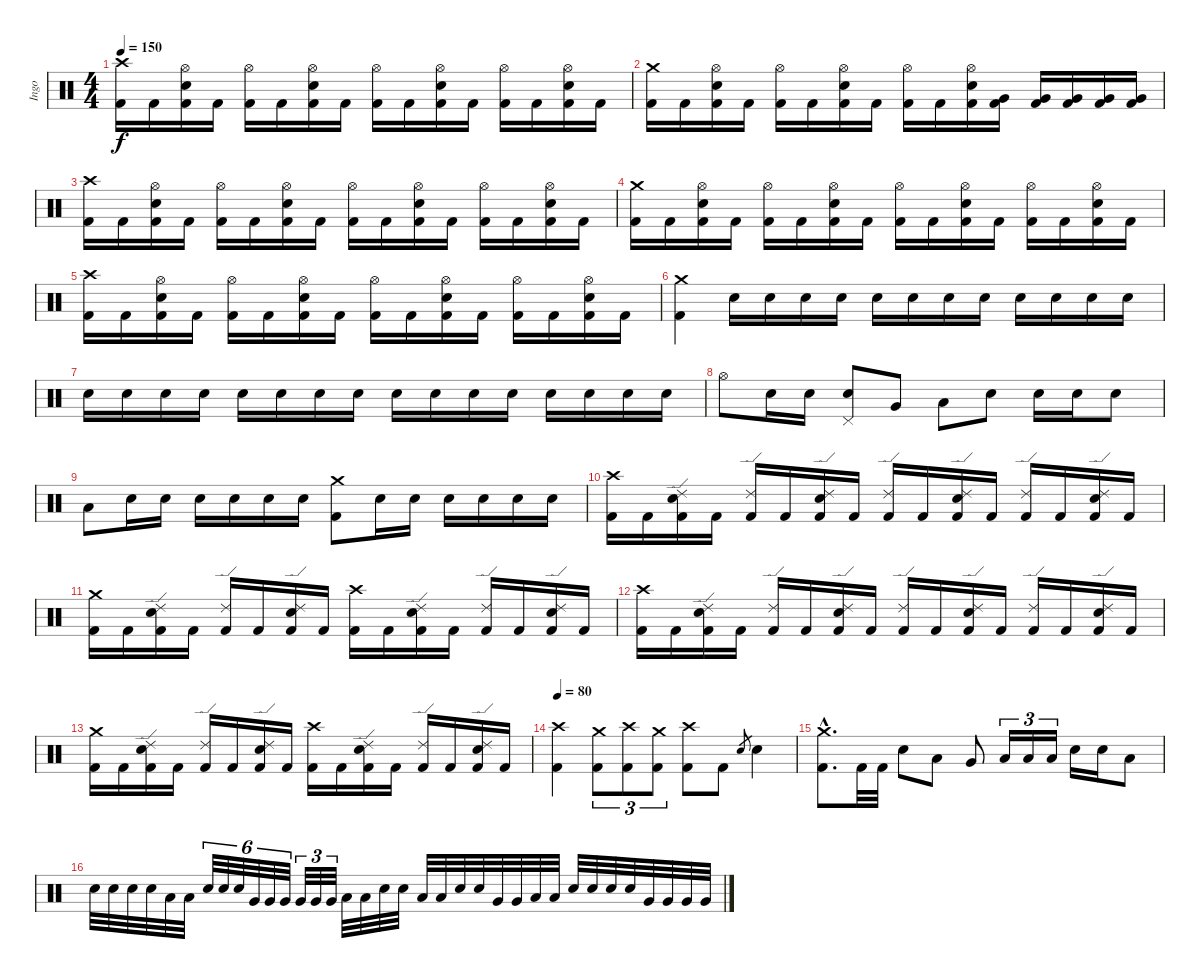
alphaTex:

\track ("Ingo" "Ingo") {instrument percussion}
\staff {score}
\articulation defaults
\ts (4 4)
\tempo 150
\clef neutral
\ks c
("Crash high (hit)" "Kick (hit) 2").16{dy f} "Kick (hit) 2".16 ("Hi-Hat (open)" "Electric Snare (hit)" "Kick (hit) 2").16 "Kick (hit) 2".16 ("Hi-Hat (open)" "Kick (hit) 2").16 "Kick (hit) 2".16 ("Hi-Hat (open)" "Electric Snare (hit)" "Kick (hit) 2").16 "Kick (hit) 2".16 ("Hi-Hat (open)" "Kick (hit) 2").16 "Kick (hit) 2".16 ("Hi-Hat (open)" "Electric Snare (hit)" "Kick (hit) 2").16 "Kick (hit) 2".16 ("Hi-Hat (open)" "Kick (hit) 2").16 "Kick (hit) 2".16 ("Hi-Hat (open)" "Electric Snare (hit)" "Kick (hit) 2").16 "Kick (hit) 2".16 |
("Crash medium (hit)" "Kick (hit) 2").16 "Kick (hit) 2".16 ("Hi-Hat (open)" "Electric Snare (hit)" "Kick (hit) 2").16 "Kick (hit) 2".16 ("Hi-Hat (open)" "Kick (hit) 2").16 "Kick (hit) 2".16 ("Hi-Hat (open)" "Electric Snare (hit)" "Kick (hit) 2").16 "Kick (hit) 2".16 ("Hi-Hat (open)" "Kick (hit) 2").16 "Kick (hit) 2".16 ("Hi-Hat (open)" "Electric Snare (hit)" "Kick (hit) 2").16 ("Very Low Tom (hit)" "Kick (hit) 2").16 ("Very Low Tom (hit)" "Kick (hit) 2").16 ("Very Low Tom (hit)" "Kick (hit) 2").16 ("Very Low Tom (hit)" "Kick (hit) 2").16 ("Very Low Tom (hit)" "Kick (hit) 2").16 |
("Crash high (hit)" "Kick (hit) 2").16 "Kick (hit) 2".16 ("Hi-Hat (open)" "Electric Snare (hit)" "Kick (hit) 2").16 "Kick (hit) 2".16 ("Hi-Hat (open)" "Kick (hit) 2").16 "Kick (hit) 2".16 ("Hi-Hat (open)" "Electric Snare (hit)" "Kick (hit) 2").16 "Kick (hit) 2".16 ("Hi-Hat (open)" "Kick (hit) 2").16 "Kick (hit) 2".16 ("Hi-Hat (open)" "Electric Snare (hit)" "Kick (hit) 2").16 "Kick (hit) 2".16 ("Hi-Hat (open)" "Kick (hit) 2").16 "Kick (hit) 2".16 ("Hi-Hat (open)" "Electric Snare (hit)" "Kick (hit) 2").16 "Kick (hit) 2".16 |
("Crash medium (hit)" "Kick (hit) 2").16 "Kick (hit) 2".16 ("Hi-Hat (open)" "Electric Snare (hit)" "Kick (hit) 2").16 "Kick (hit) 2".16 ("Hi-Hat (open)" "Kick (hit) 2").16 "Kick (hit) 2".16 ("Hi-Hat (open)" "Electric Snare (hit)" "Kick (hit) 2").16 "Kick (hit) 2".16 ("Hi-Hat (open)" "Kick (hit) 2").16 "Kick (hit) 2".16 ("Hi-Hat (open)" "Electric Snare (hit)" "Kick (hit) 2").16 "Kick (hit) 2".16 ("Hi-Hat (open)" "Kick (hit) 2").16 "Kick (hit) 2".16 ("Hi-Hat (open)" "Electric Snare (hit)" "Kick (hit) 2").16 "Kick (hit) 2".16 |
("Crash high (hit)" "Kick (hit) 2").16 "Kick (hit) 2".16 ("Hi-Hat (open)" "Electric Snare (hit)" "Kick (hit) 2").16 "Kick (hit) 2".16 ("Hi-Hat (open)" "Kick (hit) 2").16 "Kick (hit) 2".16 ("Hi-Hat (open)" "Electric Snare (hit)" "Kick (hit) 2").16 "Kick (hit) 2".16 ("Hi-Hat (open)" "Kick (hit) 2").16 "Kick (hit) 2".16 ("Hi-Hat (open)" "Electric Snare (hit)" "Kick (hit) 2").16 "Kick (hit) 2".16 ("Hi-Hat (open)" "Kick (hit) 2").16 "Kick (hit) 2".16 ("Hi-Hat (open)" "Electric Snare (hit)" "Kick (hit) 2").16 "Kick (hit) 2".16 |
("Crash medium (hit)" "Kick (hit) 2").4 "Electric Snare (hit)".16 "Electric Snare (hit)".16 "Electric Snare (hit)".16 "Electric Snare (hit)".16 "Electric Snare (hit)".16 "Electric Snare (hit)".16 "Electric Snare (hit)".16 "Electric Snare (hit)".16 "Electric Snare (hit)".16 "Electric Snare (hit)".16 "Electric Snare (hit)".16 "Electric Snare (hit)".16 |
"Electric Snare (hit)".16 "Electric Snare (hit)".16 "Electric Snare (hit)".16 "Electric Snare (hit)".16 "Electric Snare (hit)".16 "Electric Snare (hit)".16 "Electric Snare (hit)".16 "Electric Snare (hit)".16 "Electric Snare (hit)".16 "Electric Snare (hit)".16 "Electric Snare (hit)".16 "Electric Snare (hit)".16 "Electric Snare (hit)".16 "Electric Snare (hit)".16 "Electric Snare (hit)".16 "Electric Snare (hit)".16 |
"Hi-Hat (open)".8 "Electric Snare (hit)".16 "Electric Snare (hit)".16 ("Pedal Hi-Hat (hit)" "Electric Snare (hit)").8 "Very Low Tom (hit)".8 "Low Floor Tom (hit)".8 "Electric Snare (hit)".8 "Electric Snare (hit)".16 "Electric Snare (hit)".16 "Electric Snare (hit)".8 |
"Low Floor Tom (hit)".8 "Electric Snare (hit)".16 "Electric Snare (hit)".16 "Electric Snare (hit)".16 "Electric Snare (hit)".16 "Electric Snare (hit)".16 "Electric Snare (hit)".16 ("Crash medium (hit)" "Kick (hit) 2").8 "Electric Snare (hit)".16 "Electric Snare (hit)".16 "Electric Snare (hit)".16 "Electric Snare (hit)".16 "Electric Snare (hit)".16 "Electric Snare (hit)".16 |
("Crash high (hit)" "Kick (hit) 2").16 "Kick (hit) 2".16 ("Ride (edge) 2" "Electric Snare (hit)" "Kick (hit) 2").16 "Kick (hit) 2".16 ("Ride (edge) 2" "Kick (hit) 2").16 "Kick (hit) 2".16 ("Ride (edge) 2" "Electric Snare (hit)" "Kick (hit) 2").16 "Kick (hit) 2".16 ("Ride (edge) 2" "Kick (hit) 2").16 "Kick (hit) 2".16 ("Ride (edge) 2" "Electric Snare (hit)" "Kick (hit) 2").16 "Kick (hit) 2".16 ("Ride (edge) 2" "Kick (hit) 2").16 "Kick (hit) 2".16 ("Ride (edge) 2" "Electric Snare (hit)" "Kick (hit) 2").16 "Kick (hit) 2".16 |
("Crash medium (hit)" "Kick (hit) 2").16 "Kick (hit) 2".16 ("Ride (edge) 2" "Electric Snare (hit)" "Kick (hit) 2").16 "Kick (hit) 2".16 ("Ride (edge) 2" "Kick (hit) 2").16 "Kick (hit) 2".16 ("Ride (edge) 2" "Electric Snare (hit)" "Kick (hit) 2").16 "Kick (hit) 2".16 ("Crash high (hit)" "Kick (hit) 2").16 "Kick (hit) 2".16 ("Ride (edge) 2" "Electric Snare (hit)" "Kick (hit) 2").16 "Kick (hit) 2".16 ("Ride (edge) 2" "Kick (hit) 2").16 "Kick (hit) 2".16 ("Ride (edge) 2" "Electric Snare (hit)" "Kick (hit) 2").16 "Kick (hit) 2".16 |
("Crash high (hit)" "Kick (hit) 2").16 "Kick (hit) 2".16 ("Ride (edge) 2" "Electric Snare (hit)" "Kick (hit) 2").16 "Kick (hit) 2".16 ("Ride (edge) 2" "Kick (hit) 2").16 "Kick (hit) 2".16 ("Ride (edge) 2" "Electric Snare (hit)" "Kick (hit) 2").16 "Kick (hit) 2".16 ("Ride (edge) 2" "Kick (hit) 2").16 "Kick (hit) 2".16 ("Ride (edge) 2" "Electric Snare (hit)" "Kick (hit) 2").16 "Kick (hit) 2".16 ("Ride (edge) 2" "Kick (hit) 2").16 "Kick (hit) 2".16 ("Ride (edge) 2" "Electric Snare (hit)" "Kick (hit) 2").16 "Kick (hit) 2".16 |
("Crash medium (hit)" "Kick (hit) 2").16 "Kick (hit) 2".16 ("Ride (edge) 2" "Electric Snare (hit)" "Kick (hit) 2").16 "Kick (hit) 2".16 ("Ride (edge) 2" "Kick (hit) 2").16 "Kick (hit) 2".16 ("Ride (edge) 2" "Electric Snare (hit)" "Kick (hit) 2").16 "Kick (hit) 2".16 ("Crash high (hit)" "Kick (hit) 2").16 "Kick (hit) 2".16 ("Ride (edge) 2" "Electric Snare (hit)" "Kick (hit) 2").16 "Kick (hit) 2".16 ("Ride (edge) 2" "Kick (hit) 2").16 "Kick (hit) 2".16 ("Ride (edge) 2" "Electric Snare (hit)" "Kick (hit) 2").16 "Kick (hit) 2".16 |
\tempo 80
("Crash high (hit)" "Kick (hit) 2").4 ("Crash medium (hit)" "Kick (hit) 2").8{tu (3 2)} ("Crash high (hit)" "Kick (hit) 2").8{tu (3 2)} ("Crash medium (hit)" "Kick (hit) 2").8{tu (3 2)} ("Crash high (hit)" "Kick (hit) 2").8 "Kick (hit) 2".8 "Electric Snare (hit)".8{gr} "Electric Snare (hit)".4 |
("Crash medium (hit)"{hac} "Kick (hit) 2"{hac}).8{d} "Kick (hit) 2".32 "Kick (hit) 2".32 "Electric Snare (hit)".8 "Low Tom (hit)".8 "Very Low Tom (hit)".8 "Low Floor Tom (hit)".16{tu (3 2)} "Low Floor Tom (hit)".16{tu (3 2)} "Low Floor Tom (hit)".16{tu (3 2)} "Electric Snare (hit)".16 "Electric Snare (hit)".16 "Low Tom (hit)".8 |
"Electric Snare (hit)".32 "Electric Snare (hit)".32 "Electric Snare (hit)".32 "Electric Snare (hit)".32 "Low Tom (hit)".32 "Low Tom (hit)".32 "Electric Snare (hit)".32{tu (6 4)} "Electric Snare (hit)".32{tu (6 4)} "Electric Snare (hit)".32{tu (6 4)} "Very Low Tom (hit)".32{tu (6 4)} "Very Low Tom (hit)".32{tu (6 4)} "Very Low Tom (hit)".32{tu (6 4)} "Very Low Tom (hit)".32{tu (3 2)} "Very Low Tom (hit)".32{tu (3 2)} "Very Low Tom (hit)".32{tu (3 2)} "Low Floor Tom (hit)".32 "Low Floor Tom (hit)".32 "Electric Snare (hit)".32 "Electric Snare (hit)".32 "Low Tom (hit)".32 "Low Tom (hit)".32 "Electric Snare (hit)".32 "Electric Snare (hit)".32 "Very Low Tom (hit)".32 "Very Low Tom (hit)".32 "Low Floor Tom (hit)".32 "Low Floor Tom (hit)".32 "Electric Snare (hit)".32 "Electric Snare (hit)".32 "Electric Snare (hit)".32 "Electric Snare (hit)".32 "Very Low Tom (hit)".32 "Very Low Tom (hit)".32 "Very Low Tom (hit)".32 "Very Low Tom (hit)".32
